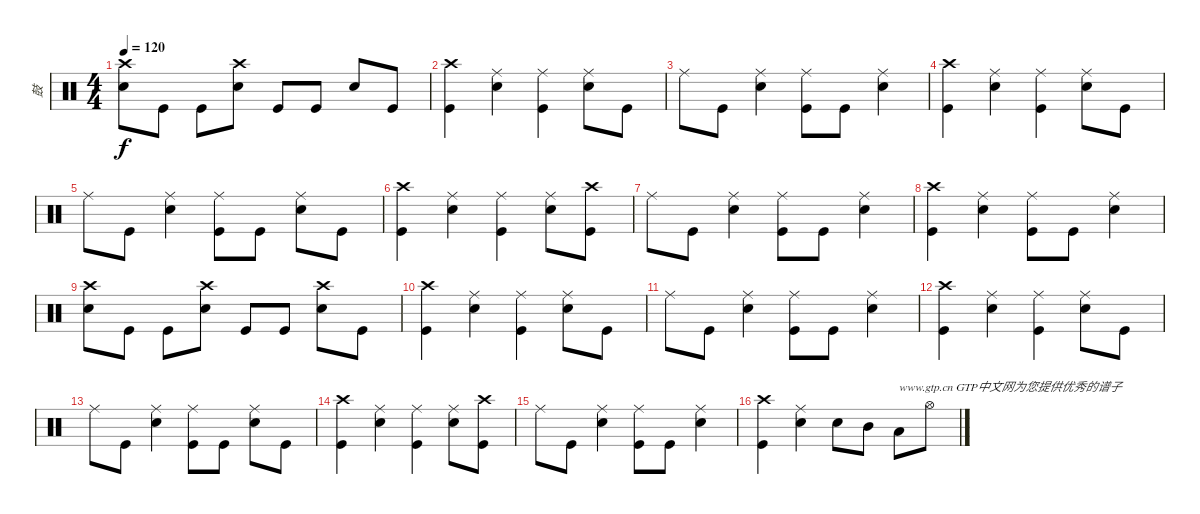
\track ("鼓" "鼓") {instrument percussion}
\staff {score}
\articulation defaults
\ts (4 4)
\tempo 120
\clef neutral
\ks c
("Electric Snare (hit)" "Crash high (hit)").8{dy f} "Kick (hit)".8 "Kick (hit)".8 ("Electric Snare (hit)" "Crash high (hit)").8 "Kick (hit)".8 "Kick (hit)".8 "Electric Snare (hit)".8 "Kick (hit)".8 |
("Crash high (hit)" "Kick (hit)").4 ("Ride (middle)" "Electric Snare (hit)").4 ("Ride (middle)" "Kick (hit)").4 ("Electric Snare (hit)" "Ride (middle)").8 "Kick (hit)".8 |
"Ride (middle)".8 "Kick (hit)".8 ("Ride (middle)" "Electric Snare (hit)").4 ("Ride (middle)" "Kick (hit)").8 "Kick (hit)".8 ("Electric Snare (hit)" "Ride (middle)").4 |
("Crash high (hit)" "Kick (hit)").4 ("Ride (middle)" "Electric Snare (hit)").4 ("Ride (middle)" "Kick (hit)").4 ("Electric Snare (hit)" "Ride (middle)").8 "Kick (hit)".8 |
"Ride (middle)".8 "Kick (hit)".8 ("Ride (middle)" "Electric Snare (hit)").4 ("Ride (middle)" "Kick (hit)").8 "Kick (hit)".8 ("Electric Snare (hit)" "Ride (middle)").8 "Kick (hit)".8 |
("Crash high (hit)" "Kick (hit)").4 ("Ride (middle)" "Electric Snare (hit)").4 ("Ride (middle)" "Kick (hit)").4 ("Electric Snare (hit)" "Ride (middle)").8 ("Kick (hit)" "Crash high (hit)").8 |
"Ride (middle)".8 "Kick (hit)".8 ("Ride (middle)" "Electric Snare (hit)").4 ("Ride (middle)" "Kick (hit)").8 "Kick (hit)".8 ("Electric Snare (hit)" "Ride (middle)").4 |
("Crash high (hit)" "Kick (hit)").4 ("Ride (middle)" "Electric Snare (hit)").4 ("Ride (middle)" "Kick (hit)").8 "Kick (hit)".8 ("Electric Snare (hit)" "Ride (middle)").4 |
("Electric Snare (hit)" "Crash high (hit)").8 "Kick (hit)".8 "Kick (hit)".8 ("Electric Snare (hit)" "Crash high (hit)").8 "Kick (hit)".8 "Kick (hit)".8 ("Electric Snare (hit)" "Crash high (hit)").8 "Kick (hit)".8 |
("Crash high (hit)" "Kick (hit)").4 ("Ride (middle)" "Electric Snare (hit)").4 ("Ride (middle)" "Kick (hit)").4 ("Electric Snare (hit)" "Ride (middle)").8 "Kick (hit)".8 |
"Ride (middle)".8 "Kick (hit)".8 ("Ride (middle)" "Electric Snare (hit)").4 ("Ride (middle)" "Kick (hit)").8 "Kick (hit)".8 ("Electric Snare (hit)" "Ride (middle)").4 |
("Kick (hit)" "Crash high (hit)").4 ("Ride (middle)" "Electric Snare (hit)").4 ("Ride (middle)" "Kick (hit)").4 ("Electric Snare (hit)" "Ride (middle)").8 "Kick (hit)".8 |
"Ride (middle)".8 "Kick (hit)".8 ("Ride (middle)" "Electric Snare (hit)").4 ("Ride (middle)" "Kick (hit)").8 "Kick (hit)".8 ("Electric Snare (hit)" "Ride (middle)").8 "Kick (hit)".8 |
("Crash high (hit)" "Kick (hit)").4 ("Ride (middle)" "Electric Snare (hit)").4 ("Ride (middle)" "Kick (hit)").4 ("Electric Snare (hit)" "Ride (middle)").8 ("Kick (hit)" "Crash high (hit)").8 |
"Ride (middle)".8 "Kick (hit)".8 ("Ride (middle)" "Electric Snare (hit)").4 ("Ride (middle)" "Kick (hit)").8 "Kick (hit)".8 ("Electric Snare (hit)" "Ride (middle)").4 |
("Crash high (hit)" "Kick (hit)").4 ("Ride (middle)" "Electric Snare (hit)").4 "Electric Snare (hit)".8 "Mid Tom (hit)".8 "Low Tom (hit)".8{txt "www.gtp.cn GTP中文网为您提供优秀的谱子"} "Hi-Hat (open)".8
